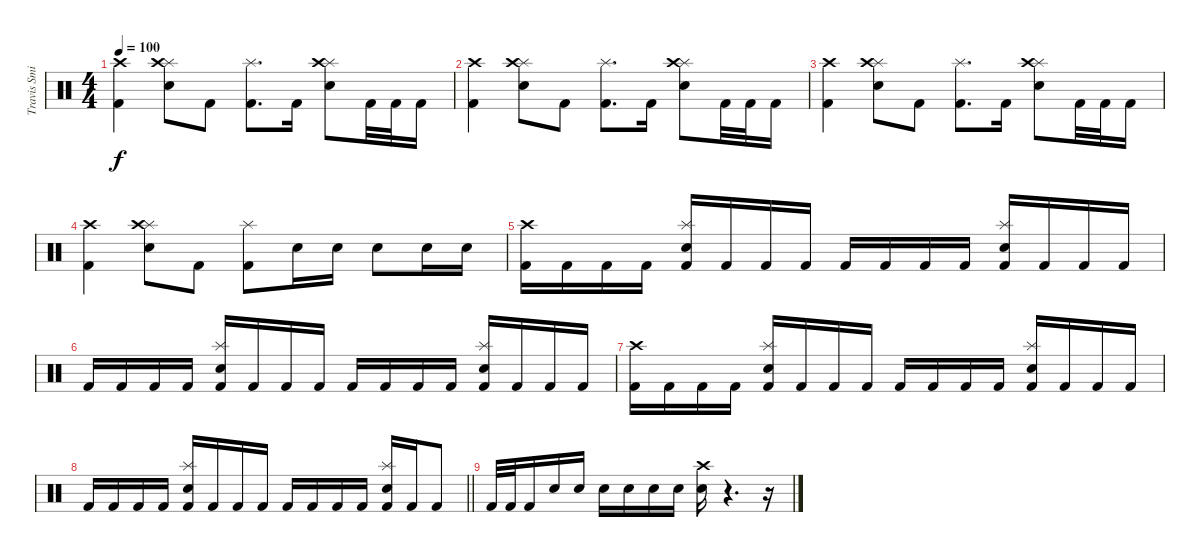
\track ("Travis Smith" "Travis Smi") {instrument percussion}
\staff {score}
\articulation defaults
\ts (4 4)
\tempo 100
\clef neutral
\ks c
("Crash high (hit)" "Kick (hit) 2").4{dy f} ("Splash (hit)" "Crash high (hit)" "Snare (hit) 2").8 "Kick (hit) 2".8 ("Splash (hit)" "Kick (hit) 2").8{d} "Kick (hit) 2".16 ("Splash (hit)" "Crash high (hit)" "Snare (hit) 2").8 "Kick (hit) 2".32 "Kick (hit) 2".32 "Kick (hit) 2".16 |
("Crash high (hit)" "Kick (hit) 2").4 ("Splash (hit)" "Crash high (hit)" "Snare (hit) 2").8 "Kick (hit) 2".8 ("Splash (hit)" "Kick (hit) 2").8{d} "Kick (hit) 2".16 ("Splash (hit)" "Crash high (hit)" "Snare (hit) 2").8 "Kick (hit) 2".32 "Kick (hit) 2".32 "Kick (hit) 2".16 |
("Crash high (hit)" "Kick (hit) 2").4 ("Splash (hit)" "Crash high (hit)" "Snare (hit) 2").8 "Kick (hit) 2".8 ("Splash (hit)" "Kick (hit) 2").8{d} "Kick (hit) 2".16 ("Splash (hit)" "Crash high (hit)" "Snare (hit) 2").8 "Kick (hit) 2".32 "Kick (hit) 2".32 "Kick (hit) 2".16 |
("Crash high (hit)" "Kick (hit) 2").4 ("Splash (hit)" "Crash high (hit)" "Snare (hit) 2").8 "Kick (hit) 2".8 ("Splash (hit)" "Kick (hit) 2").8 "Snare (hit) 2".16 "Snare (hit) 2".16 "Snare (hit) 2".8 "Snare (hit) 2".16 "Snare (hit) 2".16 |
("Crash high (hit)" "Kick (hit) 2").16 "Kick (hit) 2".16 "Kick (hit) 2".16 "Kick (hit) 2".16 ("Splash (hit)" "Snare (hit) 2" "Kick (hit) 2").16 "Kick (hit) 2".16 "Kick (hit) 2".16 "Kick (hit) 2".16 "Kick (hit) 2".16 "Kick (hit) 2".16 "Kick (hit) 2".16 "Kick (hit) 2".16 ("Splash (hit)" "Snare (hit) 2" "Kick (hit) 2").16 "Kick (hit) 2".16 "Kick (hit) 2".16 "Kick (hit) 2".16 |
"Kick (hit) 2".16 "Kick (hit) 2".16 "Kick (hit) 2".16 "Kick (hit) 2".16 ("Splash (hit)" "Snare (hit) 2" "Kick (hit) 2").16 "Kick (hit) 2".16 "Kick (hit) 2".16 "Kick (hit) 2".16 "Kick (hit) 2".16 "Kick (hit) 2".16 "Kick (hit) 2".16 "Kick (hit) 2".16 ("Splash (hit)" "Snare (hit) 2" "Kick (hit) 2").16 "Kick (hit) 2".16 "Kick (hit) 2".16 "Kick (hit) 2".16 |
("Crash high (hit)" "Kick (hit) 2").16 "Kick (hit) 2".16 "Kick (hit) 2".16 "Kick (hit) 2".16 ("Splash (hit)" "Snare (hit) 2" "Kick (hit) 2").16 "Kick (hit) 2".16 "Kick (hit) 2".16 "Kick (hit) 2".16 "Kick (hit) 2".16 "Kick (hit) 2".16 "Kick (hit) 2".16 "Kick (hit) 2".16 ("Splash (hit)" "Snare (hit) 2" "Kick (hit) 2").16 "Kick (hit) 2".16 "Kick (hit) 2".16 "Kick (hit) 2".16 |
\barLineRight lightlight "Kick (hit) 2".16 "Kick (hit) 2".16 "Kick (hit) 2".16 "Kick (hit) 2".16
("Splash (hit)" "Snare (hit) 2" "Kick (hit) 2").16 "Kick (hit) 2".16 "Kick (hit) 2".16 "Kick (hit) 2".16 "Kick (hit) 2".16 "Kick (hit) 2".16 "Kick (hit) 2".16 "Kick (hit) 2".16 ("Splash (hit)" "Snare (hit) 2" "Kick (hit) 2").16 "Kick (hit) 2".16 "Kick (hit) 2".8 |
"Kick (hit) 2".32 "Kick (hit) 2".32 "Kick (hit) 2".16 "Snare (hit) 2".16 "Snare (hit) 2".16 "Snare (hit) 2".16 "Snare (hit) 2".16 "Snare (hit) 2".16 "Snare (hit) 2".16 ("Crash high (hit)" "Snare (hit) 2").16 r.4{d} r.16
